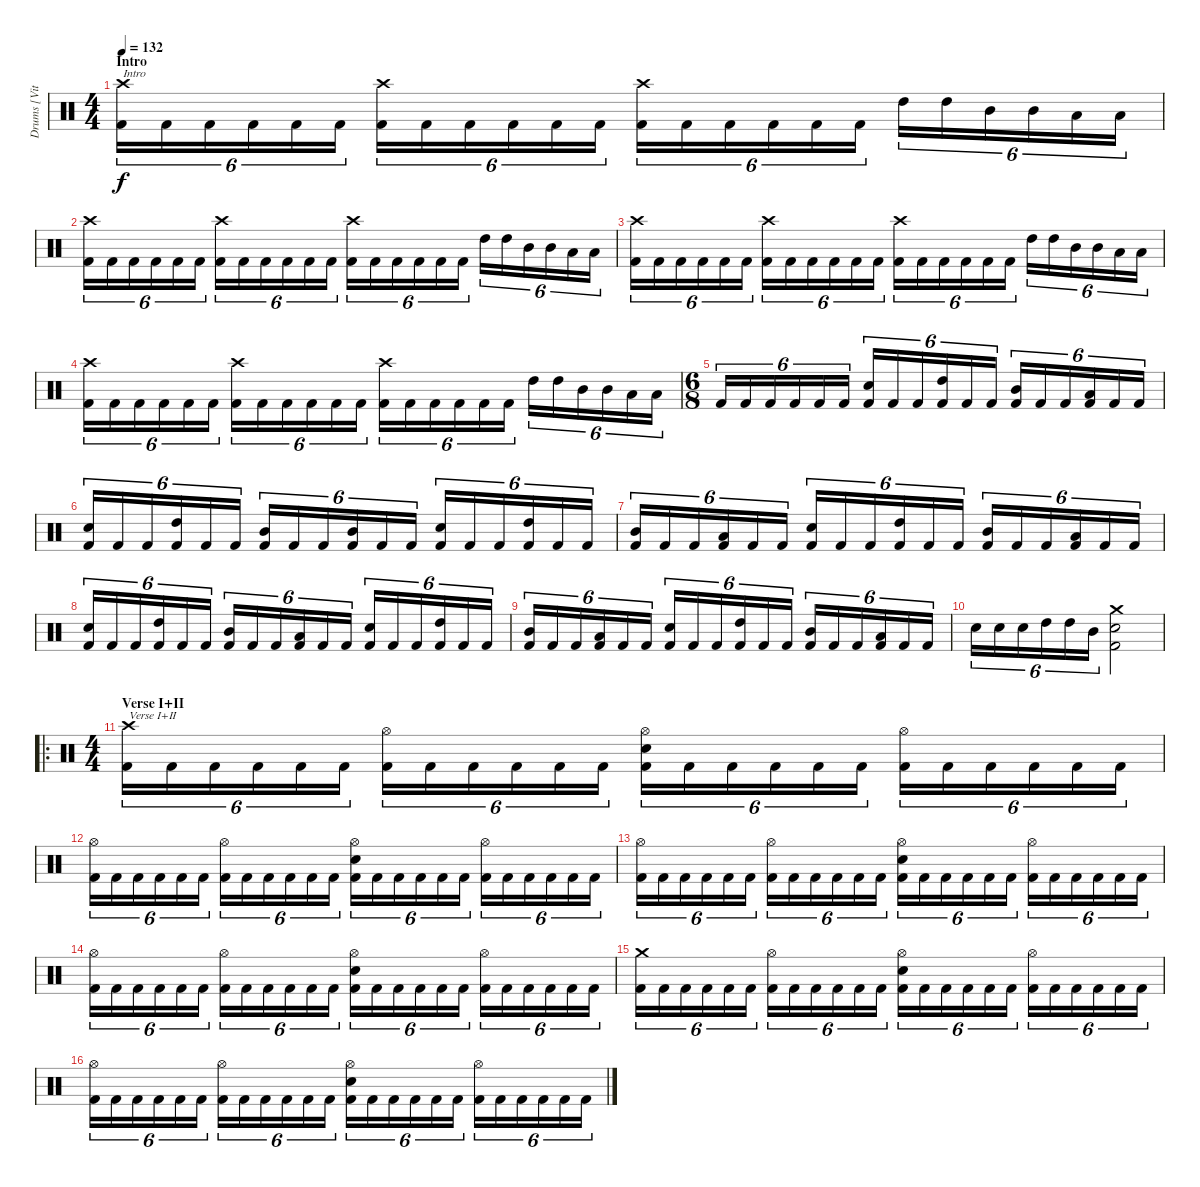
\track ("Drums [Vitek]" "Drums [Vit") {instrument percussion}
\staff {score}
\articulation defaults
\ts (4 4)
\section ("" "Intro")
\tempo 132
\clef neutral
\ks c
("Crash high (hit)" "Kick (hit) 2").16{tu (6 4) txt "Intro" dy f} "Kick (hit) 2".16{tu (6 4)} "Kick (hit) 2".16{tu (6 4)} "Kick (hit) 2".16{tu (6 4)} "Kick (hit) 2".16{tu (6 4)} "Kick (hit) 2".16{tu (6 4)} ("Crash high (hit)" "Kick (hit) 2").16{tu (6 4)} "Kick (hit) 2".16{tu (6 4)} "Kick (hit) 2".16{tu (6 4)} "Kick (hit) 2".16{tu (6 4)} "Kick (hit) 2".16{tu (6 4)} "Kick (hit) 2".16{tu (6 4)} ("Crash high (hit)" "Kick (hit) 2").16{tu (6 4)} "Kick (hit) 2".16{tu (6 4)} "Kick (hit) 2".16{tu (6 4)} "Kick (hit) 2".16{tu (6 4)} "Kick (hit) 2".16{tu (6 4)} "Kick (hit) 2".16{tu (6 4)} "High Tom (hit)".16{tu (6 4)} "High Tom (hit)".16{tu (6 4)} "Mid Tom (hit)".16{tu (6 4)} "Mid Tom (hit)".16{tu (6 4)} "Low Tom (hit)".16{tu (6 4)} "Low Tom (hit)".16{tu (6 4)} |
("Crash high (hit)" "Kick (hit) 2").16{tu (6 4)} "Kick (hit) 2".16{tu (6 4)} "Kick (hit) 2".16{tu (6 4)} "Kick (hit) 2".16{tu (6 4)} "Kick (hit) 2".16{tu (6 4)} "Kick (hit) 2".16{tu (6 4)} ("Crash high (hit)" "Kick (hit) 2").16{tu (6 4)} "Kick (hit) 2".16{tu (6 4)} "Kick (hit) 2".16{tu (6 4)} "Kick (hit) 2".16{tu (6 4)} "Kick (hit) 2".16{tu (6 4)} "Kick (hit) 2".16{tu (6 4)} ("Crash high (hit)" "Kick (hit) 2").16{tu (6 4)} "Kick (hit) 2".16{tu (6 4)} "Kick (hit) 2".16{tu (6 4)} "Kick (hit) 2".16{tu (6 4)} "Kick (hit) 2".16{tu (6 4)} "Kick (hit) 2".16{tu (6 4)} "High Tom (hit)".16{tu (6 4)} "High Tom (hit)".16{tu (6 4)} "Mid Tom (hit)".16{tu (6 4)} "Mid Tom (hit)".16{tu (6 4)} "Low Tom (hit)".16{tu (6 4)} "Low Tom (hit)".16{tu (6 4)} |
("Crash high (hit)" "Kick (hit) 2").16{tu (6 4)} "Kick (hit) 2".16{tu (6 4)} "Kick (hit) 2".16{tu (6 4)} "Kick (hit) 2".16{tu (6 4)} "Kick (hit) 2".16{tu (6 4)} "Kick (hit) 2".16{tu (6 4)} ("Crash high (hit)" "Kick (hit) 2").16{tu (6 4)} "Kick (hit) 2".16{tu (6 4)} "Kick (hit) 2".16{tu (6 4)} "Kick (hit) 2".16{tu (6 4)} "Kick (hit) 2".16{tu (6 4)} "Kick (hit) 2".16{tu (6 4)} ("Crash high (hit)" "Kick (hit) 2").16{tu (6 4)} "Kick (hit) 2".16{tu (6 4)} "Kick (hit) 2".16{tu (6 4)} "Kick (hit) 2".16{tu (6 4)} "Kick (hit) 2".16{tu (6 4)} "Kick (hit) 2".16{tu (6 4)} "High Tom (hit)".16{tu (6 4)} "High Tom (hit)".16{tu (6 4)} "Mid Tom (hit)".16{tu (6 4)} "Mid Tom (hit)".16{tu (6 4)} "Low Tom (hit)".16{tu (6 4)} "Low Tom (hit)".16{tu (6 4)} |
("Crash high (hit)" "Kick (hit) 2").16{tu (6 4)} "Kick (hit) 2".16{tu (6 4)} "Kick (hit) 2".16{tu (6 4)} "Kick (hit) 2".16{tu (6 4)} "Kick (hit) 2".16{tu (6 4)} "Kick (hit) 2".16{tu (6 4)} ("Crash high (hit)" "Kick (hit) 2").16{tu (6 4)} "Kick (hit) 2".16{tu (6 4)} "Kick (hit) 2".16{tu (6 4)} "Kick (hit) 2".16{tu (6 4)} "Kick (hit) 2".16{tu (6 4)} "Kick (hit) 2".16{tu (6 4)} ("Crash high (hit)" "Kick (hit) 2").16{tu (6 4)} "Kick (hit) 2".16{tu (6 4)} "Kick (hit) 2".16{tu (6 4)} "Kick (hit) 2".16{tu (6 4)} "Kick (hit) 2".16{tu (6 4)} "Kick (hit) 2".16{tu (6 4)} "High Tom (hit)".16{tu (6 4)} "High Tom (hit)".16{tu (6 4)} "Mid Tom (hit)".16{tu (6 4)} "Mid Tom (hit)".16{tu (6 4)} "Low Tom (hit)".16{tu (6 4)} "Low Tom (hit)".16{tu (6 4)} |
\ts (6 8)
"Kick (hit) 2".16{tu (6 4)} "Kick (hit) 2".16{tu (6 4)} "Kick (hit) 2".16{tu (6 4)} "Kick (hit) 2".16{tu (6 4)} "Kick (hit) 2".16{tu (6 4)} "Kick (hit) 2".16{tu (6 4)} ("Electric Snare (hit)" "Kick (hit) 2").16{tu (6 4)} "Kick (hit) 2".16{tu (6 4)} "Kick (hit) 2".16{tu (6 4)} ("High Tom (hit)" "Kick (hit) 2").16{tu (6 4)} "Kick (hit) 2".16{tu (6 4)} "Kick (hit) 2".16{tu (6 4)} ("Mid Tom (hit)" "Kick (hit) 2").16{tu (6 4)} "Kick (hit) 2".16{tu (6 4)} "Kick (hit) 2".16{tu (6 4)} ("Low Tom (hit)" "Kick (hit) 2").16{tu (6 4)} "Kick (hit) 2".16{tu (6 4)} "Kick (hit) 2".16{tu (6 4)} |
("Electric Snare (hit)" "Kick (hit) 2").16{tu (6 4)} "Kick (hit) 2".16{tu (6 4)} "Kick (hit) 2".16{tu (6 4)} ("High Tom (hit)" "Kick (hit) 2").16{tu (6 4)} "Kick (hit) 2".16{tu (6 4)} "Kick (hit) 2".16{tu (6 4)} ("Mid Tom (hit)" "Kick (hit) 2").16{tu (6 4)} "Kick (hit) 2".16{tu (6 4)} "Kick (hit) 2".16{tu (6 4)} ("Mid Tom (hit)" "Kick (hit) 2").16{tu (6 4)} "Kick (hit) 2".16{tu (6 4)} "Kick (hit) 2".16{tu (6 4)} ("Electric Snare (hit)" "Kick (hit) 2").16{tu (6 4)} "Kick (hit) 2".16{tu (6 4)} "Kick (hit) 2".16{tu (6 4)} ("High Tom (hit)" "Kick (hit) 2").16{tu (6 4)} "Kick (hit) 2".16{tu (6 4)} "Kick (hit) 2".16{tu (6 4)} |
("Mid Tom (hit)" "Kick (hit) 2").16{tu (6 4)} "Kick (hit) 2".16{tu (6 4)} "Kick (hit) 2".16{tu (6 4)} ("Low Tom (hit)" "Kick (hit) 2").16{tu (6 4)} "Kick (hit) 2".16{tu (6 4)} "Kick (hit) 2".16{tu (6 4)} ("Electric Snare (hit)" "Kick (hit) 2").16{tu (6 4)} "Kick (hit) 2".16{tu (6 4)} "Kick (hit) 2".16{tu (6 4)} ("High Tom (hit)" "Kick (hit) 2").16{tu (6 4)} "Kick (hit) 2".16{tu (6 4)} "Kick (hit) 2".16{tu (6 4)} ("Mid Tom (hit)" "Kick (hit) 2").16{tu (6 4)} "Kick (hit) 2".16{tu (6 4)} "Kick (hit) 2".16{tu (6 4)} ("Low Tom (hit)" "Kick (hit) 2").16{tu (6 4)} "Kick (hit) 2".16{tu (6 4)} "Kick (hit) 2".16{tu (6 4)} |
("Electric Snare (hit)" "Kick (hit) 2").16{tu (6 4)} "Kick (hit) 2".16{tu (6 4)} "Kick (hit) 2".16{tu (6 4)} ("High Tom (hit)" "Kick (hit) 2").16{tu (6 4)} "Kick (hit) 2".16{tu (6 4)} "Kick (hit) 2".16{tu (6 4)} ("Mid Tom (hit)" "Kick (hit) 2").16{tu (6 4)} "Kick (hit) 2".16{tu (6 4)} "Kick (hit) 2".16{tu (6 4)} ("Low Tom (hit)" "Kick (hit) 2").16{tu (6 4)} "Kick (hit) 2".16{tu (6 4)} "Kick (hit) 2".16{tu (6 4)} ("Electric Snare (hit)" "Kick (hit) 2").16{tu (6 4)} "Kick (hit) 2".16{tu (6 4)} "Kick (hit) 2".16{tu (6 4)} ("High Tom (hit)" "Kick (hit) 2").16{tu (6 4)} "Kick (hit) 2".16{tu (6 4)} "Kick (hit) 2".16{tu (6 4)} |
("Mid Tom (hit)" "Kick (hit) 2").16{tu (6 4)} "Kick (hit) 2".16{tu (6 4)} "Kick (hit) 2".16{tu (6 4)} ("Low Tom (hit)" "Kick (hit) 2").16{tu (6 4)} "Kick (hit) 2".16{tu (6 4)} "Kick (hit) 2".16{tu (6 4)} ("Electric Snare (hit)" "Kick (hit) 2").16{tu (6 4)} "Kick (hit) 2".16{tu (6 4)} "Kick (hit) 2".16{tu (6 4)} ("High Tom (hit)" "Kick (hit) 2").16{tu (6 4)} "Kick (hit) 2".16{tu (6 4)} "Kick (hit) 2".16{tu (6 4)} ("Mid Tom (hit)" "Kick (hit) 2").16{tu (6 4)} "Kick (hit) 2".16{tu (6 4)} "Kick (hit) 2".16{tu (6 4)} ("Low Tom (hit)" "Kick (hit) 2").16{tu (6 4)} "Kick (hit) 2".16{tu (6 4)} "Kick (hit) 2".16{tu (6 4)} |
"Electric Snare (hit)".16{tu (6 4)} "Electric Snare (hit)".16{tu (6 4)} "Electric Snare (hit)".16{tu (6 4)} "High Tom (hit)".16{tu (6 4)} "High Tom (hit)".16{tu (6 4)} "Mid Tom (hit)".16{tu (6 4)} ("Crash medium (hit)" "Electric Snare (hit)" "Kick (hit) 2").2 |
\ro
\ts (4 4)
\section ("" "Verse I+II")
("Crash high (hit)" "Kick (hit) 2").16{tu (6 4) txt "Verse I+II"} "Kick (hit) 2".16{tu (6 4)} "Kick (hit) 2".16{tu (6 4)} "Kick (hit) 2".16{tu (6 4)} "Kick (hit) 2".16{tu (6 4)} "Kick (hit) 2".16{tu (6 4)} ("Hi-Hat (open)" "Kick (hit) 2").16{tu (6 4)} "Kick (hit) 2".16{tu (6 4)} "Kick (hit) 2".16{tu (6 4)} "Kick (hit) 2".16{tu (6 4)} "Kick (hit) 2".16{tu (6 4)} "Kick (hit) 2".16{tu (6 4)} ("Hi-Hat (open)" "Electric Snare (hit)" "Kick (hit) 2").16{tu (6 4)} "Kick (hit) 2".16{tu (6 4)} "Kick (hit) 2".16{tu (6 4)} "Kick (hit) 2".16{tu (6 4)} "Kick (hit) 2".16{tu (6 4)} "Kick (hit) 2".16{tu (6 4)} ("Hi-Hat (open)" "Kick (hit) 2").16{tu (6 4)} "Kick (hit) 2".16{tu (6 4)} "Kick (hit) 2".16{tu (6 4)} "Kick (hit) 2".16{tu (6 4)} "Kick (hit) 2".16{tu (6 4)} "Kick (hit) 2".16{tu (6 4)} |
("Hi-Hat (open)" "Kick (hit) 2").16{tu (6 4)} "Kick (hit) 2".16{tu (6 4)} "Kick (hit) 2".16{tu (6 4)} "Kick (hit) 2".16{tu (6 4)} "Kick (hit) 2".16{tu (6 4)} "Kick (hit) 2".16{tu (6 4)} ("Hi-Hat (open)" "Kick (hit) 2").16{tu (6 4)} "Kick (hit) 2".16{tu (6 4)} "Kick (hit) 2".16{tu (6 4)} "Kick (hit) 2".16{tu (6 4)} "Kick (hit) 2".16{tu (6 4)} "Kick (hit) 2".16{tu (6 4)} ("Hi-Hat (open)" "Electric Snare (hit)" "Kick (hit) 2").16{tu (6 4)} "Kick (hit) 2".16{tu (6 4)} "Kick (hit) 2".16{tu (6 4)} "Kick (hit) 2".16{tu (6 4)} "Kick (hit) 2".16{tu (6 4)} "Kick (hit) 2".16{tu (6 4)} ("Hi-Hat (open)" "Kick (hit) 2").16{tu (6 4)} "Kick (hit) 2".16{tu (6 4)} "Kick (hit) 2".16{tu (6 4)} "Kick (hit) 2".16{tu (6 4)} "Kick (hit) 2".16{tu (6 4)} "Kick (hit) 2".16{tu (6 4)} |
("Hi-Hat (open)" "Kick (hit) 2").16{tu (6 4)} "Kick (hit) 2".16{tu (6 4)} "Kick (hit) 2".16{tu (6 4)} "Kick (hit) 2".16{tu (6 4)} "Kick (hit) 2".16{tu (6 4)} "Kick (hit) 2".16{tu (6 4)} ("Hi-Hat (open)" "Kick (hit) 2").16{tu (6 4)} "Kick (hit) 2".16{tu (6 4)} "Kick (hit) 2".16{tu (6 4)} "Kick (hit) 2".16{tu (6 4)} "Kick (hit) 2".16{tu (6 4)} "Kick (hit) 2".16{tu (6 4)} ("Hi-Hat (open)" "Electric Snare (hit)" "Kick (hit) 2").16{tu (6 4)} "Kick (hit) 2".16{tu (6 4)} "Kick (hit) 2".16{tu (6 4)} "Kick (hit) 2".16{tu (6 4)} "Kick (hit) 2".16{tu (6 4)} "Kick (hit) 2".16{tu (6 4)} ("Hi-Hat (open)" "Kick (hit) 2").16{tu (6 4)} "Kick (hit) 2".16{tu (6 4)} "Kick (hit) 2".16{tu (6 4)} "Kick (hit) 2".16{tu (6 4)} "Kick (hit) 2".16{tu (6 4)} "Kick (hit) 2".16{tu (6 4)} |
("Hi-Hat (open)" "Kick (hit) 2").16{tu (6 4)} "Kick (hit) 2".16{tu (6 4)} "Kick (hit) 2".16{tu (6 4)} "Kick (hit) 2".16{tu (6 4)} "Kick (hit) 2".16{tu (6 4)} "Kick (hit) 2".16{tu (6 4)} ("Hi-Hat (open)" "Kick (hit) 2").16{tu (6 4)} "Kick (hit) 2".16{tu (6 4)} "Kick (hit) 2".16{tu (6 4)} "Kick (hit) 2".16{tu (6 4)} "Kick (hit) 2".16{tu (6 4)} "Kick (hit) 2".16{tu (6 4)} ("Hi-Hat (open)" "Electric Snare (hit)" "Kick (hit) 2").16{tu (6 4)} "Kick (hit) 2".16{tu (6 4)} "Kick (hit) 2".16{tu (6 4)} "Kick (hit) 2".16{tu (6 4)} "Kick (hit) 2".16{tu (6 4)} "Kick (hit) 2".16{tu (6 4)} ("Hi-Hat (open)" "Kick (hit) 2").16{tu (6 4)} "Kick (hit) 2".16{tu (6 4)} "Kick (hit) 2".16{tu (6 4)} "Kick (hit) 2".16{tu (6 4)} "Kick (hit) 2".16{tu (6 4)} "Kick (hit) 2".16{tu (6 4)} |
("Crash medium (hit)" "Kick (hit) 2").16{tu (6 4)} "Kick (hit) 2".16{tu (6 4)} "Kick (hit) 2".16{tu (6 4)} "Kick (hit) 2".16{tu (6 4)} "Kick (hit) 2".16{tu (6 4)} "Kick (hit) 2".16{tu (6 4)} ("Hi-Hat (open)" "Kick (hit) 2").16{tu (6 4)} "Kick (hit) 2".16{tu (6 4)} "Kick (hit) 2".16{tu (6 4)} "Kick (hit) 2".16{tu (6 4)} "Kick (hit) 2".16{tu (6 4)} "Kick (hit) 2".16{tu (6 4)} ("Hi-Hat (open)" "Electric Snare (hit)" "Kick (hit) 2").16{tu (6 4)} "Kick (hit) 2".16{tu (6 4)} "Kick (hit) 2".16{tu (6 4)} "Kick (hit) 2".16{tu (6 4)} "Kick (hit) 2".16{tu (6 4)} "Kick (hit) 2".16{tu (6 4)} ("Hi-Hat (open)" "Kick (hit) 2").16{tu (6 4)} "Kick (hit) 2".16{tu (6 4)} "Kick (hit) 2".16{tu (6 4)} "Kick (hit) 2".16{tu (6 4)} "Kick (hit) 2".16{tu (6 4)} "Kick (hit) 2".16{tu (6 4)} |
("Hi-Hat (open)" "Kick (hit) 2").16{tu (6 4)} "Kick (hit) 2".16{tu (6 4)} "Kick (hit) 2".16{tu (6 4)} "Kick (hit) 2".16{tu (6 4)} "Kick (hit) 2".16{tu (6 4)} "Kick (hit) 2".16{tu (6 4)} ("Hi-Hat (open)" "Kick (hit) 2").16{tu (6 4)} "Kick (hit) 2".16{tu (6 4)} "Kick (hit) 2".16{tu (6 4)} "Kick (hit) 2".16{tu (6 4)} "Kick (hit) 2".16{tu (6 4)} "Kick (hit) 2".16{tu (6 4)} ("Hi-Hat (open)" "Electric Snare (hit)" "Kick (hit) 2").16{tu (6 4)} "Kick (hit) 2".16{tu (6 4)} "Kick (hit) 2".16{tu (6 4)} "Kick (hit) 2".16{tu (6 4)} "Kick (hit) 2".16{tu (6 4)} "Kick (hit) 2".16{tu (6 4)} ("Hi-Hat (open)" "Kick (hit) 2").16{tu (6 4)} "Kick (hit) 2".16{tu (6 4)} "Kick (hit) 2".16{tu (6 4)} "Kick (hit) 2".16{tu (6 4)} "Kick (hit) 2".16{tu (6 4)} "Kick (hit) 2".16{tu (6 4)}
